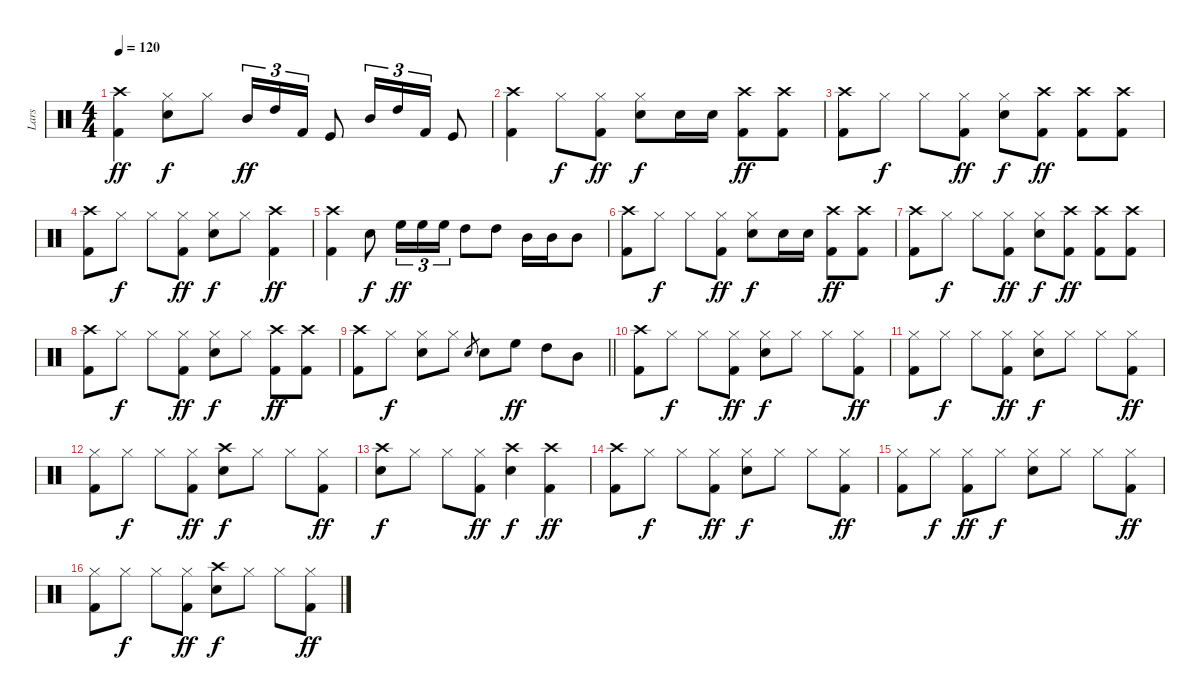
\track ("Lars" "Lars") {instrument percussion}
\staff {score}
\articulation defaults
\ts (4 4)
\tempo 120
\clef neutral
\ks c
("Crash high (hit)" "Kick (hit) 2").4{dy ff} ("Hi-Hat (closed)" "Snare (hit) 2").8{dy f} "Hi-Hat (closed)".8 "Mid Tom (hit)".16{tu (3 2) dy ff} "High Tom (hit)".16{tu (3 2)} "Kick (hit) 2".16{tu (3 2)} "Kick (hit)".8 "Mid Tom (hit)".16{tu (3 2)} "High Tom (hit)".16{tu (3 2)} "Kick (hit) 2".16{tu (3 2)} "Kick (hit)".8 |
("Crash high (hit)" "Kick (hit) 2").4 "Hi-Hat (closed)".8{dy f} ("Hi-Hat (closed)" "Kick (hit) 2").8{dy ff} ("Hi-Hat (closed)" "Snare (hit) 2").8{dy f} "Snare (hit) 2".16 "Snare (hit) 2".16 ("Crash high (hit)" "Kick (hit) 2").8{dy ff} ("Crash high (hit)" "Kick (hit) 2").8 |
("Crash high (hit)" "Kick (hit) 2").8 "Hi-Hat (closed)".8{dy f} "Hi-Hat (closed)".8 ("Hi-Hat (closed)" "Kick (hit) 2").8{dy ff} ("Hi-Hat (closed)" "Snare (hit) 2").8{dy f} ("Crash high (hit)" "Kick (hit) 2").8{dy ff} ("Crash high (hit)" "Kick (hit) 2").8 ("Crash high (hit)" "Kick (hit) 2").8 |
("Crash high (hit)" "Kick (hit) 2").8 "Hi-Hat (closed)".8{dy f} "Hi-Hat (closed)".8 ("Hi-Hat (closed)" "Kick (hit) 2").8{dy ff} ("Hi-Hat (closed)" "Snare (hit) 2").8{dy f} "Hi-Hat (closed)".8 ("Crash high (hit)" "Kick (hit) 2").4{dy ff} |
("Crash high (hit)" "Kick (hit) 2").4 "Snare (hit) 2".8{dy f} "High Floor Tom (hit)".16{tu (3 2) dy ff} "High Floor Tom (hit)".16{tu (3 2)} "High Floor Tom (hit)".16{tu (3 2)} "High Tom (hit)".8 "High Tom (hit)".8 "Mid Tom (hit)".16 "Mid Tom (hit)".16 "Mid Tom (hit)".8 |
("Crash high (hit)" "Kick (hit) 2").8 "Hi-Hat (closed)".8{dy f} "Hi-Hat (closed)".8 ("Hi-Hat (closed)" "Kick (hit) 2").8{dy ff} ("Hi-Hat (closed)" "Snare (hit) 2").8{dy f} "Snare (hit) 2".16 "Snare (hit) 2".16 ("Crash high (hit)" "Kick (hit) 2").8{dy ff} ("Crash high (hit)" "Kick (hit) 2").8 |
("Crash high (hit)" "Kick (hit) 2").8 "Hi-Hat (closed)".8{dy f} "Hi-Hat (closed)".8 ("Hi-Hat (closed)" "Kick (hit) 2").8{dy ff} ("Hi-Hat (closed)" "Snare (hit) 2").8{dy f} ("Crash high (hit)" "Kick (hit) 2").8{dy ff} ("Crash high (hit)" "Kick (hit) 2").8 ("Crash high (hit)" "Kick (hit) 2").8 |
("Crash high (hit)" "Kick (hit) 2").8 "Hi-Hat (closed)".8{dy f} "Hi-Hat (closed)".8 ("Hi-Hat (closed)" "Kick (hit) 2").8{dy ff} ("Hi-Hat (closed)" "Snare (hit) 2").8{dy f} "Hi-Hat (closed)".8 ("Crash high (hit)" "Kick (hit) 2").8{dy ff} ("Crash high (hit)" "Kick (hit) 2").8 |
\barLineRight lightlight
("Crash high (hit)" "Kick (hit) 2").8 "Hi-Hat (closed)".8{dy f} ("Hi-Hat (closed)" "Snare (hit) 2").8 "Hi-Hat (closed)".8 "Snare (hit) 2".8{gr} "Snare (hit) 2".8 "High Floor Tom (hit)".8{dy ff} "High Tom (hit)".8 "Mid Tom (hit)".8 |
("Crash high (hit)" "Kick (hit) 2").8 "Hi-Hat (closed)".8{dy f} "Hi-Hat (closed)".8 ("Hi-Hat (closed)" "Kick (hit) 2").8{dy ff} ("Hi-Hat (closed)" "Snare (hit) 2").8{dy f} "Hi-Hat (closed)".8 "Hi-Hat (closed)".8 ("Hi-Hat (closed)" "Kick (hit) 2").8{dy ff} |
("Hi-Hat (closed)" "Kick (hit) 2").8 "Hi-Hat (closed)".8{dy f} "Hi-Hat (closed)".8 ("Hi-Hat (closed)" "Kick (hit) 2").8{dy ff} ("Hi-Hat (closed)" "Snare (hit) 2").8{dy f} "Hi-Hat (closed)".8 "Hi-Hat (closed)".8 ("Hi-Hat (closed)" "Kick (hit) 2").8{dy ff} |
("Hi-Hat (closed)" "Kick (hit) 2").8 "Hi-Hat (closed)".8{dy f} "Hi-Hat (closed)".8 ("Hi-Hat (closed)" "Kick (hit) 2").8{dy ff} ("Crash high (hit)" "Snare (hit) 2").8{dy f} "Hi-Hat (closed)".8 "Hi-Hat (closed)".8 ("Hi-Hat (closed)" "Kick (hit) 2").8{dy ff} |
("Crash high (hit)" "Snare (hit) 2").8{dy f} "Hi-Hat (closed)".8 "Hi-Hat (closed)".8 ("Hi-Hat (closed)" "Kick (hit) 2").8{dy ff} ("Crash high (hit)" "Snare (hit) 2").4{dy f} ("Crash high (hit)" "Kick (hit) 2").4{dy ff} |
("Crash high (hit)" "Kick (hit) 2").8 "Hi-Hat (closed)".8{dy f} "Hi-Hat (closed)".8 ("Hi-Hat (closed)" "Kick (hit) 2").8{dy ff} ("Hi-Hat (closed)" "Snare (hit) 2").8{dy f} "Hi-Hat (closed)".8 "Hi-Hat (closed)".8 ("Hi-Hat (closed)" "Kick (hit) 2").8{dy ff} |
("Hi-Hat (closed)" "Kick (hit) 2").8 "Hi-Hat (closed)".8{dy f} ("Hi-Hat (closed)" "Kick (hit) 2").8{dy ff} "Hi-Hat (closed)".8{dy f} ("Hi-Hat (closed)" "Snare (hit) 2").8 "Hi-Hat (closed)".8 "Hi-Hat (closed)".8 ("Hi-Hat (closed)" "Kick (hit) 2").8{dy ff} |
("Hi-Hat (closed)" "Kick (hit) 2").8 "Hi-Hat (closed)".8{dy f} "Hi-Hat (closed)".8 ("Hi-Hat (closed)" "Kick (hit) 2").8{dy ff} ("Crash high (hit)" "Snare (hit) 2").8{dy f} "Hi-Hat (closed)".8 "Hi-Hat (closed)".8 ("Hi-Hat (closed)" "Kick (hit) 2").8{dy ff}
